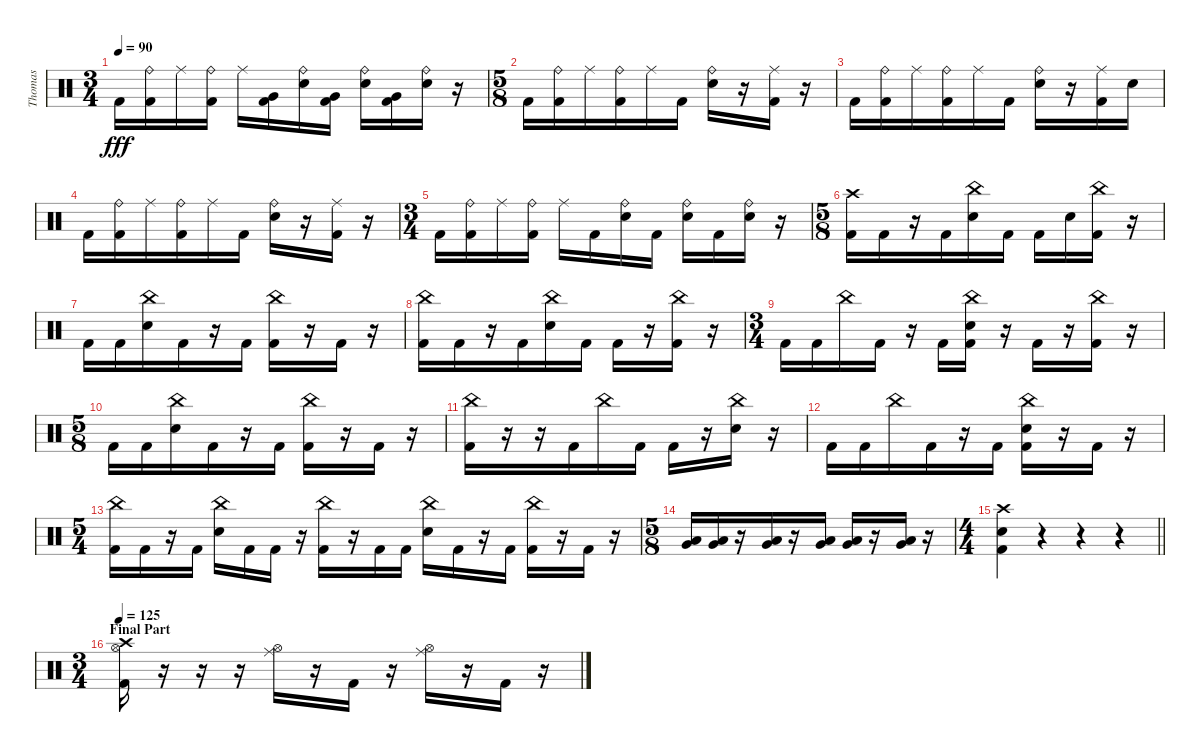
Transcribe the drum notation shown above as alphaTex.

\track ("Thomas " "Thomas ") {instrument percussion}
\staff {score}
\articulation defaults
\ts (3 4)
\tempo 90
\clef neutral
\ks c "Kick (hit) 2".16{dy fff}
("Ride (bell)" "Kick (hit) 2").16 "Ride (middle)".16 ("Ride (bell)" "Kick (hit) 2").16 "Ride (middle)".16 ("Very Low Tom (hit)" "Kick (hit) 2").16 ("Ride (bell)" "Electric Snare (hit)").16 ("Very Low Tom (hit)" "Kick (hit) 2").16 ("Ride (bell)" "Electric Snare (hit)").16 ("Very Low Tom (hit)" "Kick (hit) 2").16 ("Ride (bell)" "Electric Snare (hit)").16 r.16 |
\ts (5 8)
"Kick (hit) 2".16 ("Ride (bell)" "Kick (hit) 2").16 "Ride (middle)".16 ("Ride (bell)" "Kick (hit) 2").16 "Ride (middle)".16 "Kick (hit) 2".16 ("Ride (bell)" "Electric Snare (hit)").16 r.16 ("Ride (middle)" "Kick (hit) 2").16 r.16 |
"Kick (hit) 2".16 ("Ride (bell)" "Kick (hit) 2").16 "Ride (middle)".16 ("Ride (bell)" "Kick (hit) 2").16 "Ride (middle)".16 "Kick (hit) 2".16 ("Ride (bell)" "Electric Snare (hit)").16 r.16 ("Ride (middle)" "Kick (hit) 2").16 "Electric Snare (hit)".16 |
"Kick (hit) 2".16 ("Ride (bell)" "Kick (hit) 2").16 "Ride (middle)".16 ("Ride (bell)" "Kick (hit) 2").16 "Ride (middle)".16 "Kick (hit) 2".16 ("Ride (bell)" "Electric Snare (hit)").16 r.16 ("Ride (middle)" "Kick (hit) 2").16 r.16 |
\ts (3 4)
"Kick (hit) 2".16 ("Ride (bell)" "Kick (hit) 2").16 "Ride (middle)".16 ("Ride (bell)" "Kick (hit) 2").16 "Ride (middle)".16 "Kick (hit) 2".16 ("Ride (bell)" "Electric Snare (hit)").16 "Kick (hit) 2".16 ("Ride (bell)" "Electric Snare (hit)").16 "Kick (hit) 2".16 ("Ride (bell)" "Electric Snare (hit)").16 r.16 |
\ts (5 8)
("Crash high (hit)" "Kick (hit) 2").16 "Kick (hit) 2".16 r.16 "Kick (hit) 2".16 ("China (hit)" "Electric Snare (hit)").16 "Kick (hit) 2".16 "Kick (hit) 2".16 "Electric Snare (hit)".16 ("China (hit)" "Kick (hit) 2").16 r.16 |
"Kick (hit) 2".16 "Kick (hit) 2".16 ("China (hit)" "Electric Snare (hit)").16 "Kick (hit) 2".16 r.16 "Kick (hit) 2".16 ("China (hit)" "Kick (hit) 2").16 r.16 "Kick (hit) 2".16 r.16 |
("China (hit)" "Kick (hit) 2").16 "Kick (hit) 2".16 r.16 "Kick (hit) 2".16 ("China (hit)" "Electric Snare (hit)").16 "Kick (hit) 2".16 "Kick (hit) 2".16 r.16 ("China (hit)" "Kick (hit) 2").16 r.16 |
\ts (3 4)
"Kick (hit) 2".16 "Kick (hit) 2".16 "China (hit)".16 "Kick (hit) 2".16 r.16 "Kick (hit) 2".16 ("China (hit)" "Electric Snare (hit)" "Kick (hit) 2").16 r.16 "Kick (hit) 2".16 r.16 ("China (hit)" "Kick (hit) 2").16 r.16 |
\ts (5 8)
"Kick (hit) 2".16 "Kick (hit) 2".16 ("China (hit)" "Electric Snare (hit)").16 "Kick (hit) 2".16 r.16 "Kick (hit) 2".16 ("China (hit)" "Kick (hit) 2").16 r.16 "Kick (hit) 2".16 r.16 |
("China (hit)" "Kick (hit) 2").16 r.16 r.16 "Kick (hit) 2".16 "China (hit)".16 "Kick (hit) 2".16 "Kick (hit) 2".16 r.16 ("China (hit)" "Electric Snare (hit)").16 r.16 |
"Kick (hit) 2".16 "Kick (hit) 2".16 "China (hit)".16 "Kick (hit) 2".16 r.16 "Kick (hit) 2".16 ("China (hit)" "Electric Snare (hit)" "Kick (hit) 2").16 r.16 "Kick (hit) 2".16 r.16 |
\ts (5 4)
("China (hit)" "Kick (hit) 2").16 "Kick (hit) 2".16 r.16 "Kick (hit) 2".16 ("China (hit)" "Electric Snare (hit)").16 "Kick (hit) 2".16 "Kick (hit) 2".16 r.16 ("China (hit)" "Kick (hit) 2").16 r.16 "Kick (hit) 2".16 "Kick (hit) 2".16 ("China (hit)" "Electric Snare (hit)").16 "Kick (hit) 2".16 r.16 "Kick (hit) 2".16 ("China (hit)" "Kick (hit) 2").16 r.16 "Kick (hit) 2".16 r.16 |
\ts (5 8)
("Low Tom (hit)" "Very Low Tom (hit)").16 ("Low Tom (hit)" "Very Low Tom (hit)").16 r.16 ("Low Tom (hit)" "Very Low Tom (hit)").16 r.16 ("Low Tom (hit)" "Very Low Tom (hit)").16 ("Low Tom (hit)" "Very Low Tom (hit)").16 r.16 ("Low Tom (hit)" "Very Low Tom (hit)").16 r.16 |
\ts (4 4)
\barLineRight lightlight
("Crash high (hit)" "Electric Snare (hit)" "Kick (hit) 2").4 r.4 r.4 r.4 |
\ts (3 4)
\section ("" "Final Part")
\tempo 125
("Crash high (hit)" "Hi-Hat (open)" "Kick (hit) 2").16 r.16 r.16 r.16 ("Ride (middle)" "Hi-Hat (open)").16 r.16 "Kick (hit) 2".16 r.16 ("Ride (middle)" "Hi-Hat (open)").16 r.16 "Kick (hit) 2".16 r.16
